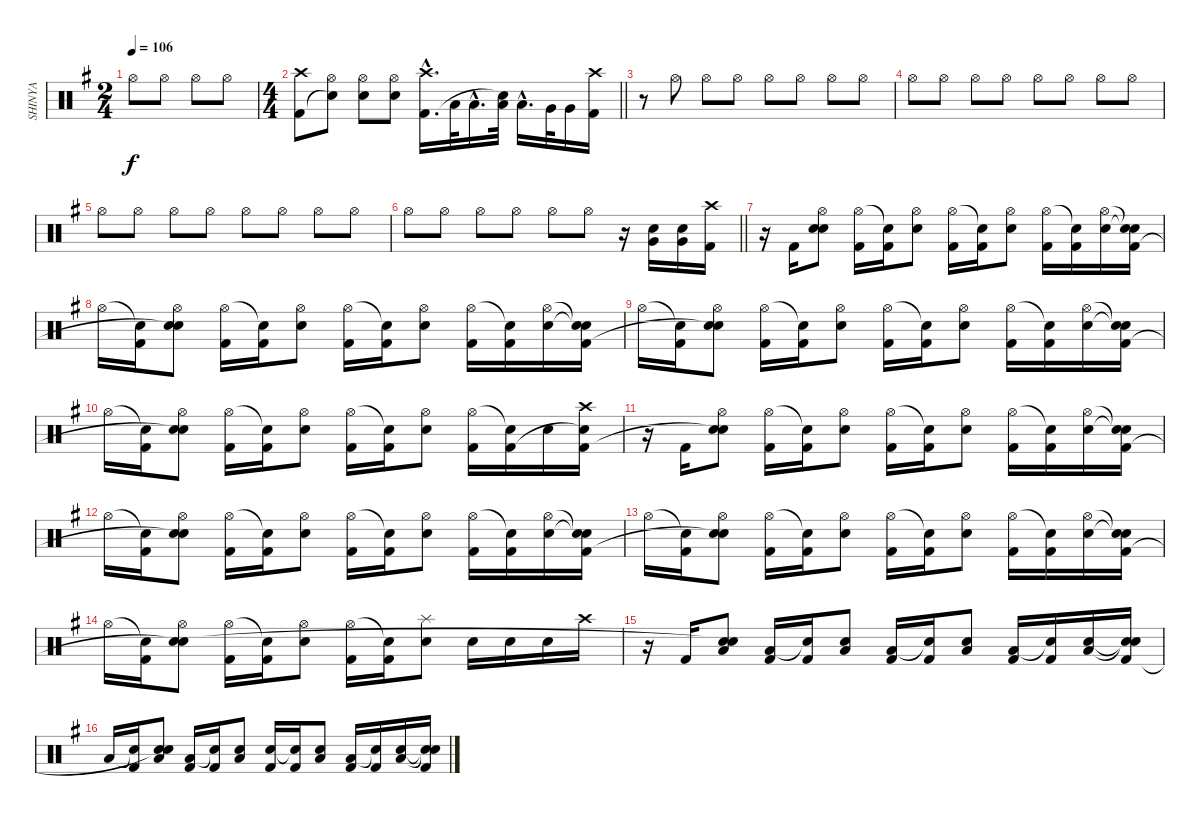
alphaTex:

\track ("SHINYA" "SHINYA") {instrument percussion}
\staff {score}
\articulation defaults
\ts (2 4)
\tempo 106
\clef neutral
\ks g "Hi-Hat (open)".8{dy f} "Hi-Hat (open)".8 "Hi-Hat (open)".8 "Hi-Hat (open)".8
|
\ts (4 4)
\barLineRight lightlight
("Crash high (hit)" "Kick (hit) 2").8 ("Hi-Hat (open)" "Snare (hit)"{t}).8 ("Hi-Hat (open)" "Electric Snare (hit)").8 ("Hi-Hat (open)" "Electric Snare (hit)").8 ("Crash high (hit)"{hac} "Kick (hit) 2"{hac}).16{d} "Low Tom (hit)".32 "Low Tom (hit)"{hac}.16{d} ("Low Tom (hit)" "Snare (hit)"{t}).32 "Low Tom (hit)"{hac}.16{d} "Very Low Tom (hit)".32 "Very Low Tom (hit)".16 ("Crash high (hit)" "Kick (hit) 2").16 |
r.8 "Hi-Hat (open)".8 "Hi-Hat (open)".8 "Hi-Hat (open)".8 "Hi-Hat (open)".8 "Hi-Hat (open)".8 "Hi-Hat (open)".8 "Hi-Hat (open)".8 |
"Hi-Hat (open)".8 "Hi-Hat (open)".8 "Hi-Hat (open)".8 "Hi-Hat (open)".8 "Hi-Hat (open)".8 "Hi-Hat (open)".8 "Hi-Hat (open)".8 "Hi-Hat (open)".8 |
"Hi-Hat (open)".8 "Hi-Hat (open)".8 "Hi-Hat (open)".8 "Hi-Hat (open)".8 "Hi-Hat (open)".8 "Hi-Hat (open)".8 "Hi-Hat (open)".8 "Hi-Hat (open)".8 |
\barLineRight lightlight "Hi-Hat (open)".8 "Hi-Hat (open)".8 "Hi-Hat (open)".8 "Hi-Hat (open)".8 "Hi-Hat (open)".8 "Hi-Hat (open)".8
r.16 ("Electric Snare (hit)" "Very Low Tom (hit)").16 ("Electric Snare (hit)" "Very Low Tom (hit)").16 ("Crash high (hit)" "Kick (hit) 2").16 |
r.16 "Kick (hit) 2".16 ("Electric Snare (hit)" "Hi-Hat (open)" "Snare (hit)").8 ("Hi-Hat (open)" "Kick (hit) 2").16 ("Snare (hit)"{t} "Kick (hit) 2").16 ("Electric Snare (hit)" "Hi-Hat (open)").8 ("Hi-Hat (open)" "Kick (hit) 2").16 ("Snare (hit)"{t} "Kick (hit) 2").16 ("Hi-Hat (open)" "Electric Snare (hit)").8 ("Hi-Hat (open)" "Kick (hit) 2").16 ("Snare (hit)"{t} "Kick (hit) 2").16 ("Electric Snare (hit)" "Hi-Hat (open)").16 ("Snare (hit)"{t} "Snare (hit)"{t} "Kick (hit) 2").16 |
"Hi-Hat (open)".16 ("Snare (hit)"{t} "Kick (hit) 2").16 ("Electric Snare (hit)" "Hi-Hat (open)" "Snare (hit)"{t}).8 ("Hi-Hat (open)" "Kick (hit) 2").16 ("Snare (hit)"{t} "Kick (hit) 2").16 ("Electric Snare (hit)" "Hi-Hat (open)").8 ("Hi-Hat (open)" "Kick (hit) 2").16 ("Snare (hit)"{t} "Kick (hit) 2").16 ("Electric Snare (hit)" "Hi-Hat (open)").8 ("Hi-Hat (open)" "Kick (hit) 2").16 ("Snare (hit)"{t} "Kick (hit) 2").16 ("Electric Snare (hit)" "Hi-Hat (open)").16 ("Snare (hit)"{t} "Snare (hit)"{t} "Kick (hit) 2").16 |
"Hi-Hat (open)".16 ("Snare (hit)"{t} "Kick (hit) 2").16 ("Electric Snare (hit)" "Hi-Hat (open)" "Snare (hit)"{t}).8 ("Hi-Hat (open)" "Kick (hit) 2").16 ("Snare (hit)"{t} "Kick (hit) 2").16 ("Electric Snare (hit)" "Hi-Hat (open)").8 ("Hi-Hat (open)" "Kick (hit) 2").16 ("Snare (hit)"{t} "Kick (hit) 2").16 ("Electric Snare (hit)" "Hi-Hat (open)").8 ("Hi-Hat (open)" "Kick (hit) 2").16 ("Snare (hit)"{t} "Kick (hit) 2").16 ("Electric Snare (hit)" "Hi-Hat (open)").16 ("Snare (hit)"{t} "Snare (hit)"{t} "Kick (hit) 2").16 |
"Hi-Hat (open)".16 ("Snare (hit)"{t} "Kick (hit) 2").16 ("Electric Snare (hit)" "Hi-Hat (open)" "Snare (hit)"{t}).8 ("Hi-Hat (open)" "Kick (hit) 2").16 ("Snare (hit)"{t} "Kick (hit) 2").16 ("Electric Snare (hit)" "Hi-Hat (open)").8 ("Hi-Hat (open)" "Kick (hit) 2").16 ("Snare (hit)"{t} "Kick (hit) 2").16 ("Hi-Hat (open)" "Electric Snare (hit)").8 ("Hi-Hat (open)" "Kick (hit) 2").16 ("Snare (hit)"{t} "Kick (hit) 2").16 "Electric Snare (hit)".16 ("Crash high (hit)" "Snare (hit)"{t} "Kick (hit) 2").16 |
r.16 "Kick (hit) 2".16 ("Electric Snare (hit)" "Hi-Hat (open)" "Snare (hit)"{t}).8 ("Hi-Hat (open)" "Kick (hit) 2").16 ("Snare (hit)"{t} "Kick (hit) 2").16 ("Electric Snare (hit)" "Hi-Hat (open)").8 ("Hi-Hat (open)" "Kick (hit) 2").16 ("Snare (hit)"{t} "Kick (hit) 2").16 ("Electric Snare (hit)" "Hi-Hat (open)").8 ("Hi-Hat (open)" "Kick (hit) 2").16 ("Snare (hit)"{t} "Kick (hit) 2").16 ("Electric Snare (hit)" "Hi-Hat (open)").16 ("Snare (hit)"{t} "Snare (hit)"{t} "Kick (hit) 2").16 |
"Hi-Hat (open)".16 ("Snare (hit)"{t} "Kick (hit) 2").16 ("Electric Snare (hit)" "Hi-Hat (open)" "Snare (hit)"{t}).8 ("Hi-Hat (open)" "Kick (hit) 2").16 ("Snare (hit)"{t} "Kick (hit) 2").16 ("Electric Snare (hit)" "Hi-Hat (open)").8 ("Hi-Hat (open)" "Kick (hit) 2").16 ("Snare (hit)"{t} "Kick (hit) 2").16 ("Electric Snare (hit)" "Hi-Hat (open)").8 ("Hi-Hat (open)" "Kick (hit) 2").16 ("Snare (hit)"{t} "Kick (hit) 2").16 ("Electric Snare (hit)" "Hi-Hat (open)").16 ("Snare (hit)"{t} "Snare (hit)"{t} "Kick (hit) 2").16 |
"Hi-Hat (open)".16 ("Snare (hit)"{t} "Kick (hit) 2").16 ("Electric Snare (hit)" "Hi-Hat (open)" "Snare (hit)"{t}).8 ("Hi-Hat (open)" "Kick (hit) 2").16 ("Snare (hit)"{t} "Kick (hit) 2").16 ("Electric Snare (hit)" "Hi-Hat (open)").8 ("Hi-Hat (open)" "Kick (hit) 2").16 ("Snare (hit)"{t} "Kick (hit) 2").16 ("Electric Snare (hit)" "Hi-Hat (open)").8 ("Hi-Hat (open)" "Kick (hit) 2").16 ("Snare (hit)"{t} "Kick (hit) 2").16 ("Electric Snare (hit)" "Hi-Hat (open)").16 ("Snare (hit)"{t} "Snare (hit)"{t} "Kick (hit) 2").16 |
"Hi-Hat (open)".16 ("Snare (hit)"{t} "Kick (hit) 2").16 ("Electric Snare (hit)" "Hi-Hat (open)" "Snare (hit)"{t}).8 ("Hi-Hat (open)" "Kick (hit) 2").16 ("Snare (hit)"{t} "Kick (hit) 2").16 ("Electric Snare (hit)" "Hi-Hat (open)").8 ("Hi-Hat (open)" "Kick (hit) 2").16 ("Snare (hit)"{t} "Kick (hit) 2").16 ("Splash (hit)" "Electric Snare (hit)").8 "Electric Snare (hit)".16 "Electric Snare (hit)".16 "Electric Snare (hit)".16 "Crash high (hit)".16 |
r.16 "Kick (hit) 2".16 ("Low Floor Tom (hit)" "Electric Snare (hit)" "Snare (hit)"{t}).8 ("Low Floor Tom (hit)" "Kick (hit) 2").16 ("Snare (hit)"{t} "Kick (hit) 2").16 ("Low Floor Tom (hit)" "Electric Snare (hit)").8 ("Low Floor Tom (hit)" "Kick (hit) 2").16 ("Snare (hit)"{t} "Kick (hit) 2").16 ("Low Floor Tom (hit)" "Electric Snare (hit)").8 ("Low Floor Tom (hit)" "Kick (hit) 2").16 ("Snare (hit)"{t} "Kick (hit) 2").16 ("Low Floor Tom (hit)" "Electric Snare (hit)").16 ("Snare (hit)"{t} "Snare (hit)"{t} "Kick (hit) 2").16 |
"Low Floor Tom (hit)".16 ("Snare (hit)"{t} "Kick (hit) 2").16 ("Low Floor Tom (hit)" "Electric Snare (hit)" "Snare (hit)"{t}).8 ("Low Floor Tom (hit)" "Kick (hit) 2").16 ("Snare (hit)"{t} "Kick (hit) 2").16 ("Low Floor Tom (hit)" "Electric Snare (hit)").8 ("Electric Snare (hit)" "Kick (hit) 2").16 ("Snare (hit)"{t} "Kick (hit) 2").16 ("Low Floor Tom (hit)" "Electric Snare (hit)").8 ("Low Floor Tom (hit)" "Kick (hit) 2").16 ("Snare (hit)"{t} "Kick (hit) 2").16 ("Low Floor Tom (hit)" "Electric Snare (hit)").16 ("Snare (hit)"{t} "Snare (hit)"{t} "Kick (hit) 2").16
